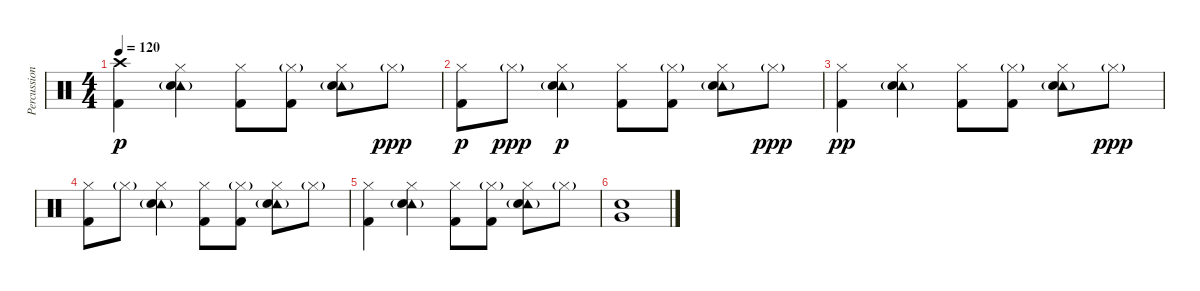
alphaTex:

\track ("Percussion     E" "Percussion") {instrument percussion}
\staff {score}
\articulation defaults
\ts (4 4)
\tempo 120
\clef neutral
\ks c
("Crash high (hit)" "Kick (hit) 2").4{dy p} ("Hi-Hat (closed)" "Tambourine (hit)"{g} "Electric Snare (hit)").4 ("Hi-Hat (closed)" "Kick (hit) 2").8 ("Hi-Hat (closed)"{g} "Kick (hit) 2").8 ("Hi-Hat (closed)" "Tambourine (hit)"{g} "Electric Snare (hit)").8 "Hi-Hat (closed)"{g}.8{dy ppp} |
("Hi-Hat (closed)" "Kick (hit) 2").8{dy p} "Hi-Hat (closed)"{g}.8{dy ppp} ("Hi-Hat (closed)" "Tambourine (hit)"{g} "Electric Snare (hit)").4{dy p} ("Hi-Hat (closed)" "Kick (hit) 2").8 ("Hi-Hat (closed)"{g} "Kick (hit) 2").8 ("Hi-Hat (closed)" "Tambourine (hit)"{g} "Electric Snare (hit)").8 "Hi-Hat (closed)"{g}.8{dy ppp} |
("Hi-Hat (closed)" "Kick (hit) 2").4{dy pp} ("Hi-Hat (closed)" "Tambourine (hit)"{g} "Electric Snare (hit)").4 ("Hi-Hat (closed)" "Kick (hit) 2").8 ("Hi-Hat (closed)"{g} "Kick (hit) 2").8 ("Hi-Hat (closed)" "Tambourine (hit)"{g} "Electric Snare (hit)").8 "Hi-Hat (closed)"{g}.8{dy ppp} |
("Hi-Hat (closed)" "Kick (hit) 2").8 "Hi-Hat (closed)"{g}.8 ("Hi-Hat (closed)" "Tambourine (hit)"{g} "Electric Snare (hit)").4 ("Hi-Hat (closed)" "Kick (hit) 2").8 ("Hi-Hat (closed)"{g} "Kick (hit) 2").8 ("Hi-Hat (closed)" "Tambourine (hit)"{g} "Electric Snare (hit)").8 "Hi-Hat (closed)"{g}.8 |
("Hi-Hat (closed)" "Kick (hit) 2").4 ("Hi-Hat (closed)" "Tambourine (hit)"{g} "Electric Snare (hit)").4 ("Hi-Hat (closed)" "Kick (hit) 2").8 ("Hi-Hat (closed)"{g} "Kick (hit) 2").8 ("Hi-Hat (closed)" "Tambourine (hit)"{g} "Electric Snare (hit)").8 "Hi-Hat (closed)"{g}.8 |
("Electric Snare (hit)" "Very Low Tom (hit)").1
